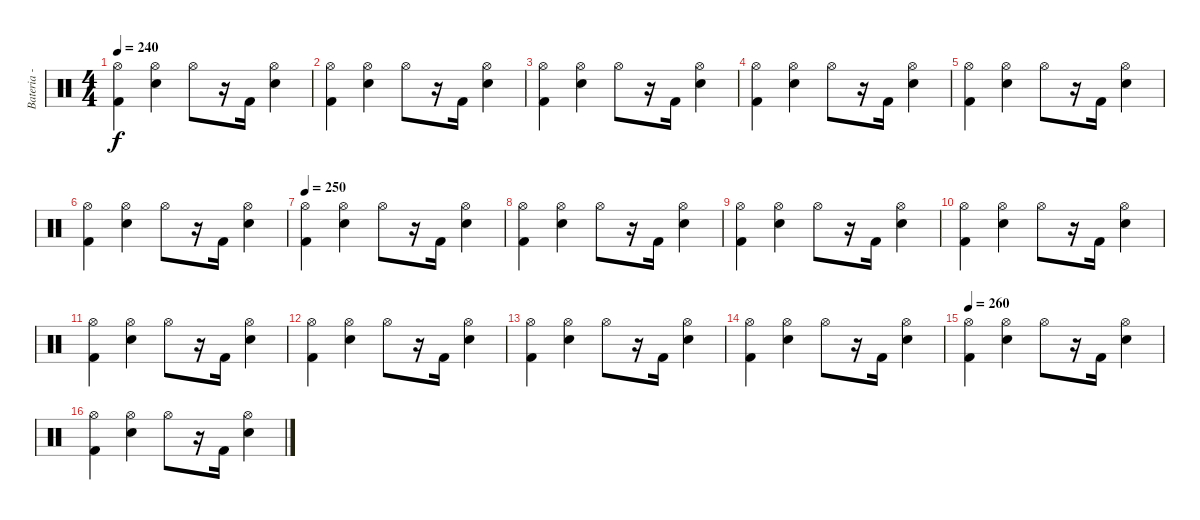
\track ("Bateria - Larzon" "Bateria - ") {instrument percussion}
\staff {score}
\articulation defaults
\ts (4 4)
\tempo 240
\clef neutral
\ks c
("Kick (hit) 2" "Hi-Hat (open)").4{dy f} ("Electric Snare (hit)" "Hi-Hat (open)").4 "Hi-Hat (open)".8 r.16 "Kick (hit) 2".16 ("Electric Snare (hit)" "Hi-Hat (open)").4 |
("Kick (hit) 2" "Hi-Hat (open)").4 ("Electric Snare (hit)" "Hi-Hat (open)").4 "Hi-Hat (open)".8 r.16 "Kick (hit) 2".16 ("Electric Snare (hit)" "Hi-Hat (open)").4 |
("Kick (hit) 2" "Hi-Hat (open)").4 ("Electric Snare (hit)" "Hi-Hat (open)").4 "Hi-Hat (open)".8 r.16 "Kick (hit) 2".16 ("Electric Snare (hit)" "Hi-Hat (open)").4 |
("Kick (hit) 2" "Hi-Hat (open)").4 ("Electric Snare (hit)" "Hi-Hat (open)").4 "Hi-Hat (open)".8 r.16 "Kick (hit) 2".16 ("Electric Snare (hit)" "Hi-Hat (open)").4 |
("Kick (hit) 2" "Hi-Hat (open)").4 ("Electric Snare (hit)" "Hi-Hat (open)").4 "Hi-Hat (open)".8 r.16 "Kick (hit) 2".16 ("Electric Snare (hit)" "Hi-Hat (open)").4 |
("Kick (hit) 2" "Hi-Hat (open)").4 ("Electric Snare (hit)" "Hi-Hat (open)").4 "Hi-Hat (open)".8 r.16 "Kick (hit) 2".16 ("Electric Snare (hit)" "Hi-Hat (open)").4 |
\tempo 250
("Kick (hit) 2" "Hi-Hat (open)").4{volume 6} ("Electric Snare (hit)" "Hi-Hat (open)").4 "Hi-Hat (open)".8 r.16 "Kick (hit) 2".16 ("Electric Snare (hit)" "Hi-Hat (open)").4 |
("Kick (hit) 2" "Hi-Hat (open)").4 ("Electric Snare (hit)" "Hi-Hat (open)").4 "Hi-Hat (open)".8 r.16 "Kick (hit) 2".16 ("Electric Snare (hit)" "Hi-Hat (open)").4 |
("Kick (hit) 2" "Hi-Hat (open)").4 ("Electric Snare (hit)" "Hi-Hat (open)").4 "Hi-Hat (open)".8 r.16 "Kick (hit) 2".16 ("Electric Snare (hit)" "Hi-Hat (open)").4 |
("Kick (hit) 2" "Hi-Hat (open)").4 ("Electric Snare (hit)" "Hi-Hat (open)").4 "Hi-Hat (open)".8 r.16 "Kick (hit) 2".16 ("Electric Snare (hit)" "Hi-Hat (open)").4 |
("Kick (hit) 2" "Hi-Hat (open)").4 ("Electric Snare (hit)" "Hi-Hat (open)").4 "Hi-Hat (open)".8 r.16 "Kick (hit) 2".16 ("Electric Snare (hit)" "Hi-Hat (open)").4 |
("Kick (hit) 2" "Hi-Hat (open)").4 ("Electric Snare (hit)" "Hi-Hat (open)").4 "Hi-Hat (open)".8 r.16 "Kick (hit) 2".16 ("Electric Snare (hit)" "Hi-Hat (open)").4 |
("Kick (hit) 2" "Hi-Hat (open)").4 ("Electric Snare (hit)" "Hi-Hat (open)").4 "Hi-Hat (open)".8 r.16 "Kick (hit) 2".16 ("Electric Snare (hit)" "Hi-Hat (open)").4 |
("Kick (hit) 2" "Hi-Hat (open)").4 ("Electric Snare (hit)" "Hi-Hat (open)").4 "Hi-Hat (open)".8 r.16 "Kick (hit) 2".16 ("Electric Snare (hit)" "Hi-Hat (open)").4 |
\tempo 260
("Kick (hit) 2" "Hi-Hat (open)").4{volume 4} ("Electric Snare (hit)" "Hi-Hat (open)").4 "Hi-Hat (open)".8 r.16 "Kick (hit) 2".16 ("Electric Snare (hit)" "Hi-Hat (open)").4 |
("Kick (hit) 2" "Hi-Hat (open)").4 ("Electric Snare (hit)" "Hi-Hat (open)").4 "Hi-Hat (open)".8 r.16 "Kick (hit) 2".16 ("Electric Snare (hit)" "Hi-Hat (open)").4
